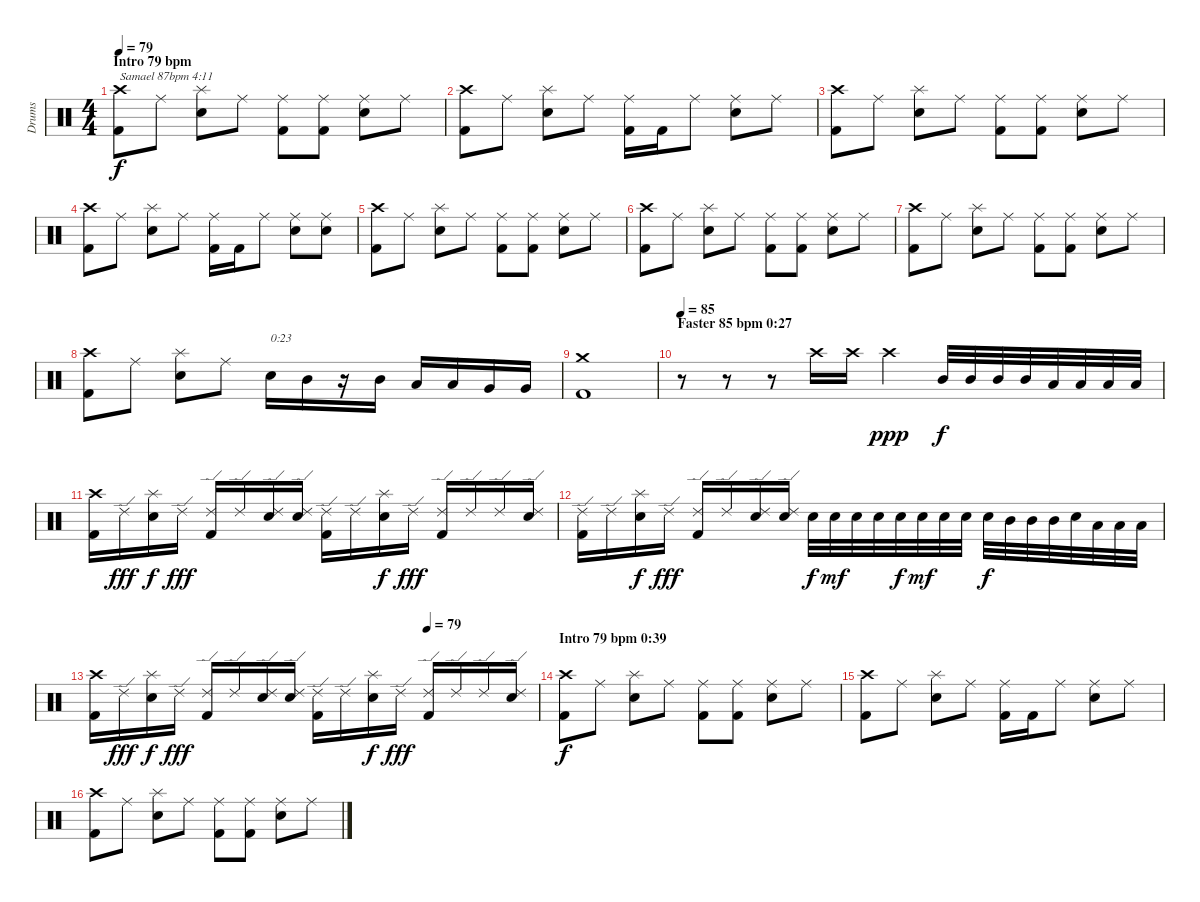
\track ("Drums" "Drums") {instrument percussion}
\staff {score}
\articulation defaults
\ts (4 4)
\section ("" "Intro 79 bpm")
\tempo 79
\clef neutral
\ks c
("Kick (hit) 2" "Crash high (hit)").8{txt "Samael 87bpm 4:11 " dy f} "Ride (middle)".8 ("Electric Snare (hit)" "Splash (hit)").8 "Ride (middle)".8 ("Kick (hit) 2" "Ride (middle)").8 ("Kick (hit) 2" "Ride (middle)").8 ("Electric Snare (hit)" "Ride (middle)").8 "Ride (middle)".8 |
("Kick (hit) 2" "Crash high (hit)").8 "Ride (middle)".8 ("Electric Snare (hit)" "Splash (hit)").8 "Ride (middle)".8 ("Kick (hit) 2" "Ride (middle)").16 "Kick (hit) 2".16 "Ride (middle)".8 ("Electric Snare (hit)" "Ride (middle)").8 "Ride (middle)".8 |
("Kick (hit) 2" "Crash high (hit)").8 "Ride (middle)".8 ("Electric Snare (hit)" "Splash (hit)").8 "Ride (middle)".8 ("Kick (hit) 2" "Ride (middle)").8 ("Kick (hit) 2" "Ride (middle)").8 ("Electric Snare (hit)" "Ride (middle)").8 "Ride (middle)".8 |
("Kick (hit) 2" "Crash high (hit)").8 "Ride (middle)".8 ("Electric Snare (hit)" "Splash (hit)").8 "Ride (middle)".8 ("Kick (hit) 2" "Ride (middle)").16 "Kick (hit) 2".16 "Ride (middle)".8 ("Electric Snare (hit)" "Ride (middle)").8 ("Electric Snare (hit)" "Ride (middle)").8 |
("Kick (hit) 2" "Crash high (hit)").8 "Ride (middle)".8 ("Electric Snare (hit)" "Splash (hit)").8 "Ride (middle)".8 ("Kick (hit) 2" "Ride (middle)").8 ("Kick (hit) 2" "Ride (middle)").8 ("Electric Snare (hit)" "Ride (middle)").8 "Ride (middle)".8 |
("Kick (hit) 2" "Crash high (hit)").8 "Ride (middle)".8 ("Electric Snare (hit)" "Splash (hit)").8 "Ride (middle)".8 ("Kick (hit) 2" "Ride (middle)").8 ("Kick (hit) 2" "Ride (middle)").8 ("Electric Snare (hit)" "Ride (middle)").8 "Ride (middle)".8 |
("Kick (hit) 2" "Crash high (hit)").8 "Ride (middle)".8 ("Electric Snare (hit)" "Splash (hit)").8 "Ride (middle)".8 ("Kick (hit) 2" "Ride (middle)").8 ("Kick (hit) 2" "Ride (middle)").8 ("Electric Snare (hit)" "Ride (middle)").8 "Ride (middle)".8 |
("Kick (hit) 2" "Crash high (hit)").8 "Ride (middle)".8 ("Electric Snare (hit)" "Splash (hit)").8 "Ride (middle)".8 "Electric Snare (hit)".16{txt "0:23"} "Mid Tom (hit)".16 r.16 "Mid Tom (hit)".16 "Low Tom (hit)".16 "Low Tom (hit)".16 "Very Low Tom (hit)".16 "Very Low Tom (hit)".16 |
("Kick (hit) 2" "Crash medium (hit)").1 |
\section ("" "Faster 85 bpm 0:27 ")
\tempo 85
r.8 r.8 r.8 "Crash high (hit)".16 "Crash high (hit)".16 "Crash high (hit)".4{dy ppp} "Mid Tom (hit)".32{dy f} "Mid Tom (hit)".32 "Mid Tom (hit)".32 "Mid Tom (hit)".32 "Low Tom (hit)".32 "Low Tom (hit)".32 "Low Tom (hit)".32 "Low Tom (hit)".32 |
("Kick (hit) 2" "Crash high (hit)").16 "Ride (edge) 2".16{dy fff} ("Electric Snare (hit)" "Splash (hit)").16{dy f} "Ride (edge) 2".16{dy fff} ("Kick (hit) 2" "Ride (edge) 2").16 "Ride (edge) 2".16 ("Electric Snare (hit)" "Ride (edge) 2").16 ("Electric Snare (hit)" "Ride (edge) 2").16 ("Kick (hit) 2" "Ride (edge) 2").16 "Ride (edge) 2".16 ("Electric Snare (hit)" "Splash (hit)").16{dy f} "Ride (edge) 2".16{dy fff} ("Kick (hit) 2" "Ride (edge) 2").16 "Ride (edge) 2".16 "Ride (edge) 2".16 ("Electric Snare (hit)" "Ride (edge) 2").16 |
("Kick (hit) 2" "Ride (edge) 2").16 "Ride (edge) 2".16 ("Electric Snare (hit)" "Splash (hit)").16{dy f} "Ride (edge) 2".16{dy fff} ("Kick (hit) 2" "Ride (edge) 2").16 "Ride (edge) 2".16 ("Electric Snare (hit)" "Ride (edge) 2").16 ("Electric Snare (hit)" "Ride (edge) 2").16 "Electric Snare (hit)".32{dy f} "Electric Snare (hit)".32{dy mf} "Electric Snare (hit)".32 "Electric Snare (hit)".32 "Electric Snare (hit)".32{dy f} "Electric Snare (hit)".32{dy mf} "Electric Snare (hit)".32 "Electric Snare (hit)".32 "Electric Snare (hit)".32{dy f} "Mid Tom (hit)".32 "Mid Tom (hit)".32 "Mid Tom (hit)".32 "Electric Snare (hit)".32 "Low Tom (hit)".32 "Low Tom (hit)".32 "Low Tom (hit)".32 |
\tempo (79 0.75)
("Kick (hit) 2" "Crash high (hit)").16 "Ride (edge) 2".16{dy fff} ("Electric Snare (hit)" "Splash (hit)").16{dy f} "Ride (edge) 2".16{dy fff} ("Kick (hit) 2" "Ride (edge) 2").16 "Ride (edge) 2".16 ("Electric Snare (hit)" "Ride (edge) 2").16 ("Electric Snare (hit)" "Ride (edge) 2").16 ("Kick (hit) 2" "Ride (edge) 2").16 "Ride (edge) 2".16 ("Electric Snare (hit)" "Splash (hit)").16{dy f} "Ride (edge) 2".16{dy fff} ("Kick (hit) 2" "Ride (edge) 2").16 "Ride (edge) 2".16 "Ride (edge) 2".16 ("Electric Snare (hit)" "Ride (edge) 2").16 |
\section ("" "Intro 79 bpm 0:39")
("Kick (hit) 2" "Crash high (hit)").8{dy f} "Ride (middle)".8 ("Electric Snare (hit)" "Splash (hit)").8 "Ride (middle)".8 ("Kick (hit) 2" "Ride (middle)").8 ("Kick (hit) 2" "Ride (middle)").8 ("Electric Snare (hit)" "Ride (middle)").8 "Ride (middle)".8 |
("Kick (hit) 2" "Crash high (hit)").8 "Ride (middle)".8 ("Electric Snare (hit)" "Splash (hit)").8 "Ride (middle)".8 ("Kick (hit) 2" "Ride (middle)").16 "Kick (hit) 2".16 "Ride (middle)".8 ("Electric Snare (hit)" "Ride (middle)").8 "Ride (middle)".8 |
("Kick (hit) 2" "Crash high (hit)").8 "Ride (middle)".8 ("Electric Snare (hit)" "Splash (hit)").8 "Ride (middle)".8 ("Kick (hit) 2" "Ride (middle)").8 ("Kick (hit) 2" "Ride (middle)").8 ("Electric Snare (hit)" "Ride (middle)").8 "Ride (middle)".8
